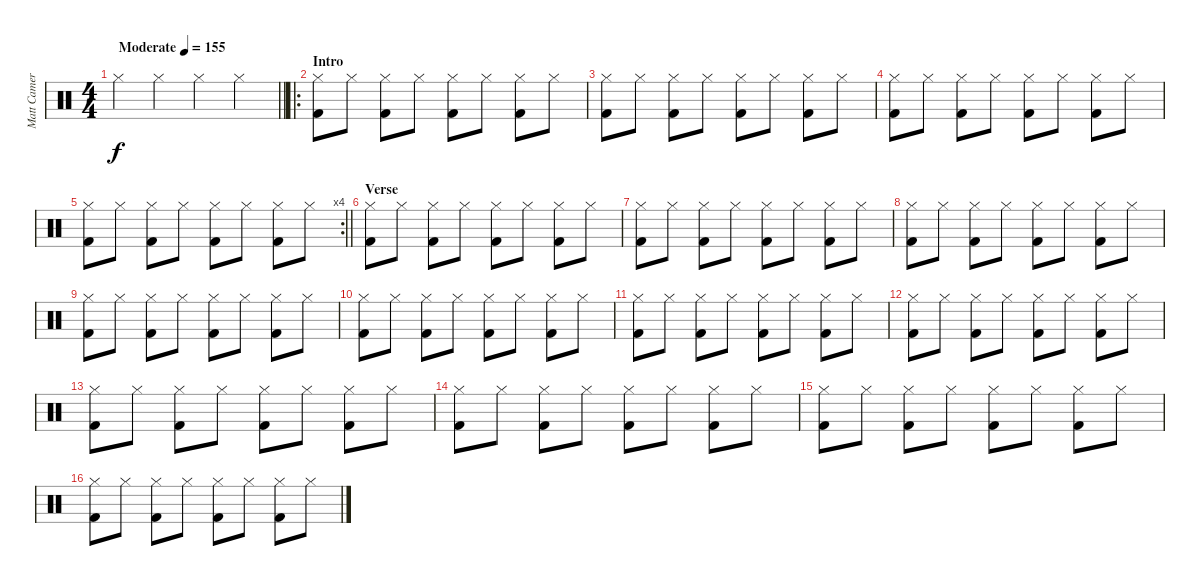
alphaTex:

\track ("Matt Cameron" "Matt Camer") {instrument percussion}
\staff {score}
\articulation defaults
\ts (4 4)
\tempo (155 "Moderate")
\clef neutral
\barLineRight lightlight
\ks c "Hi-Hat (closed)".4{dy f} "Hi-Hat (closed)".4 "Hi-Hat (closed)".4 "Hi-Hat (closed)".4
|
\ro
\section ("" "Intro")
("Hi-Hat (closed)" "Kick (hit) 2").8 "Hi-Hat (closed)".8 ("Hi-Hat (closed)" "Kick (hit) 2").8 "Hi-Hat (closed)".8 ("Hi-Hat (closed)" "Kick (hit) 2").8 "Hi-Hat (closed)".8 ("Hi-Hat (closed)" "Kick (hit) 2").8 "Hi-Hat (closed)".8 |
("Hi-Hat (closed)" "Kick (hit) 2").8 "Hi-Hat (closed)".8 ("Hi-Hat (closed)" "Kick (hit) 2").8 "Hi-Hat (closed)".8 ("Hi-Hat (closed)" "Kick (hit) 2").8 "Hi-Hat (closed)".8 ("Hi-Hat (closed)" "Kick (hit) 2").8 "Hi-Hat (closed)".8 |
("Hi-Hat (closed)" "Kick (hit) 2").8 "Hi-Hat (closed)".8 ("Hi-Hat (closed)" "Kick (hit) 2").8 "Hi-Hat (closed)".8 ("Hi-Hat (closed)" "Kick (hit) 2").8 "Hi-Hat (closed)".8 ("Hi-Hat (closed)" "Kick (hit) 2").8 "Hi-Hat (closed)".8 |
\rc 4
\barLineRight lightlight
("Hi-Hat (closed)" "Kick (hit) 2").8 "Hi-Hat (closed)".8 ("Hi-Hat (closed)" "Kick (hit) 2").8 "Hi-Hat (closed)".8 ("Hi-Hat (closed)" "Kick (hit) 2").8 "Hi-Hat (closed)".8 ("Hi-Hat (closed)" "Kick (hit) 2").8 "Hi-Hat (closed)".8 |
\section ("" "Verse")
("Hi-Hat (closed)" "Kick (hit) 2").8 "Hi-Hat (closed)".8 ("Hi-Hat (closed)" "Kick (hit) 2").8 "Hi-Hat (closed)".8 ("Hi-Hat (closed)" "Kick (hit) 2").8 "Hi-Hat (closed)".8 ("Hi-Hat (closed)" "Kick (hit) 2").8 "Hi-Hat (closed)".8 |
("Hi-Hat (closed)" "Kick (hit) 2").8 "Hi-Hat (closed)".8 ("Hi-Hat (closed)" "Kick (hit) 2").8 "Hi-Hat (closed)".8 ("Hi-Hat (closed)" "Kick (hit) 2").8 "Hi-Hat (closed)".8 ("Hi-Hat (closed)" "Kick (hit) 2").8 "Hi-Hat (closed)".8 |
("Hi-Hat (closed)" "Kick (hit) 2").8 "Hi-Hat (closed)".8 ("Hi-Hat (closed)" "Kick (hit) 2").8 "Hi-Hat (closed)".8 ("Hi-Hat (closed)" "Kick (hit) 2").8 "Hi-Hat (closed)".8 ("Hi-Hat (closed)" "Kick (hit) 2").8 "Hi-Hat (closed)".8 |
("Hi-Hat (closed)" "Kick (hit) 2").8 "Hi-Hat (closed)".8 ("Hi-Hat (closed)" "Kick (hit) 2").8 "Hi-Hat (closed)".8 ("Hi-Hat (closed)" "Kick (hit) 2").8 "Hi-Hat (closed)".8 ("Hi-Hat (closed)" "Kick (hit) 2").8 "Hi-Hat (closed)".8 |
("Hi-Hat (closed)" "Kick (hit) 2").8 "Hi-Hat (closed)".8 ("Hi-Hat (closed)" "Kick (hit) 2").8 "Hi-Hat (closed)".8 ("Hi-Hat (closed)" "Kick (hit) 2").8 "Hi-Hat (closed)".8 ("Hi-Hat (closed)" "Kick (hit) 2").8 "Hi-Hat (closed)".8 |
("Hi-Hat (closed)" "Kick (hit) 2").8 "Hi-Hat (closed)".8 ("Hi-Hat (closed)" "Kick (hit) 2").8 "Hi-Hat (closed)".8 ("Hi-Hat (closed)" "Kick (hit) 2").8 "Hi-Hat (closed)".8 ("Hi-Hat (closed)" "Kick (hit) 2").8 "Hi-Hat (closed)".8 |
("Hi-Hat (closed)" "Kick (hit) 2").8 "Hi-Hat (closed)".8 ("Hi-Hat (closed)" "Kick (hit) 2").8 "Hi-Hat (closed)".8 ("Hi-Hat (closed)" "Kick (hit) 2").8 "Hi-Hat (closed)".8 ("Hi-Hat (closed)" "Kick (hit) 2").8 "Hi-Hat (closed)".8 |
("Hi-Hat (closed)" "Kick (hit) 2").8 "Hi-Hat (closed)".8 ("Hi-Hat (closed)" "Kick (hit) 2").8 "Hi-Hat (closed)".8 ("Hi-Hat (closed)" "Kick (hit) 2").8 "Hi-Hat (closed)".8 ("Hi-Hat (closed)" "Kick (hit) 2").8 "Hi-Hat (closed)".8 |
("Hi-Hat (closed)" "Kick (hit) 2").8 "Hi-Hat (closed)".8 ("Hi-Hat (closed)" "Kick (hit) 2").8 "Hi-Hat (closed)".8 ("Hi-Hat (closed)" "Kick (hit) 2").8 "Hi-Hat (closed)".8 ("Hi-Hat (closed)" "Kick (hit) 2").8 "Hi-Hat (closed)".8 |
("Hi-Hat (closed)" "Kick (hit) 2").8 "Hi-Hat (closed)".8 ("Hi-Hat (closed)" "Kick (hit) 2").8 "Hi-Hat (closed)".8 ("Hi-Hat (closed)" "Kick (hit) 2").8 "Hi-Hat (closed)".8 ("Hi-Hat (closed)" "Kick (hit) 2").8 "Hi-Hat (closed)".8 |
("Hi-Hat (closed)" "Kick (hit) 2").8 "Hi-Hat (closed)".8 ("Hi-Hat (closed)" "Kick (hit) 2").8 "Hi-Hat (closed)".8 ("Hi-Hat (closed)" "Kick (hit) 2").8 "Hi-Hat (closed)".8 ("Hi-Hat (closed)" "Kick (hit) 2").8 "Hi-Hat (closed)".8
